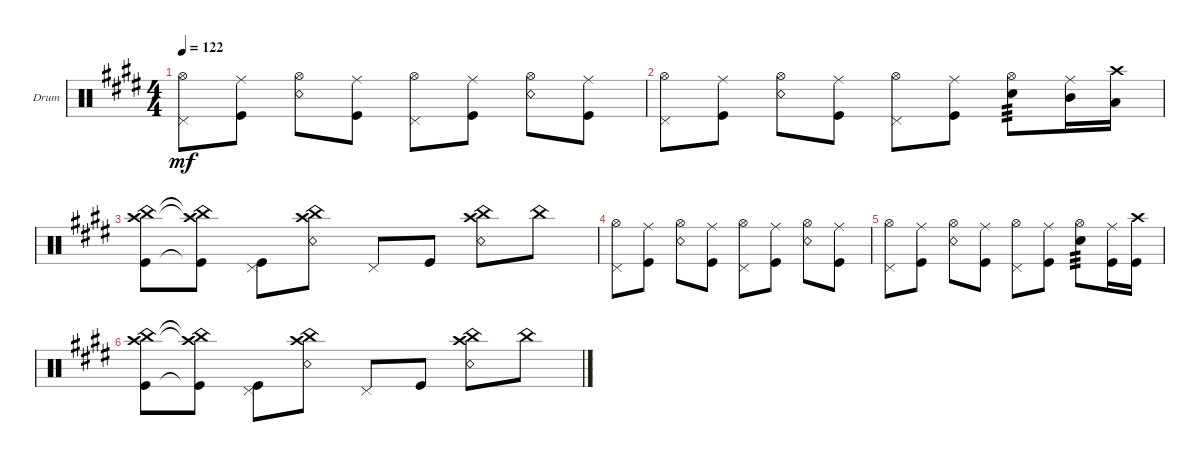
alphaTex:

\defaultSystemsLayout 4
\bracketExtendMode groupsimilarinstruments
\firstSystemTrackNameOrientation horizontal
\otherSystemsTrackNameOrientation horizontal
\track ("Bateria" "Drum") {multiBarRest instrument percussion}
\staff {score}
\articulation defaults
\ts (4 4)
\tempo 122
\clef neutral
\ks e
("Pedal Hi-Hat (hit)" "Hi-Hat (open)").8{dy mf} ("Kick (hit)" "Ride (middle)").8 ("Snare (rim shot)" "Hi-Hat (open)").8 ("Kick (hit)" "Ride (middle)").8 ("Pedal Hi-Hat (hit)" "Hi-Hat (open)").8 ("Kick (hit)" "Ride (middle)").8 ("Snare (rim shot)" "Hi-Hat (open)").8 ("Kick (hit)" "Ride (middle)").8 |
("Pedal Hi-Hat (hit)" "Hi-Hat (open)").8 ("Kick (hit)" "Ride (middle)").8 ("Snare (rim shot)" "Hi-Hat (open)").8 ("Kick (hit)" "Ride (middle)").8 ("Pedal Hi-Hat (hit)" "Hi-Hat (open)").8 ("Kick (hit)" "Ride (middle)").8 ("Snare (hit) 2" "Hi-Hat (open)").8{tp 3} ("Ride (middle)" "Mid Tom (hit)").16 ("Low Tom (hit)" "Crash high (hit)").16 |
("Kick (hit)" "Crash high (hit)" "China (hit)").8 ("Kick (hit)"{t} "Crash high (hit)"{t} "China (hit)"{t}).8 ("Kick (hit)" "Pedal Hi-Hat (hit)").8 ("Snare (rim shot)" "China (hit)" "Crash high (hit)").8 "Pedal Hi-Hat (hit)".8 "Kick (hit)".8 ("Snare (rim shot)" "Crash high (hit)" "China (hit)").8 "China (hit)".8 |
("Pedal Hi-Hat (hit)" "Hi-Hat (open)").8 ("Kick (hit)" "Ride (middle)").8 ("Snare (rim shot)" "Hi-Hat (open)").8 ("Kick (hit)" "Ride (middle)").8 ("Pedal Hi-Hat (hit)" "Hi-Hat (open)").8 ("Kick (hit)" "Ride (middle)").8 ("Snare (rim shot)" "Hi-Hat (open)").8 ("Kick (hit)" "Ride (middle)").8 |
("Pedal Hi-Hat (hit)" "Hi-Hat (open)").8 ("Kick (hit)" "Ride (middle)").8 ("Snare (rim shot)" "Hi-Hat (open)").8 ("Kick (hit)" "Ride (middle)").8 ("Pedal Hi-Hat (hit)" "Hi-Hat (open)").8 ("Kick (hit)" "Ride (middle)").8 ("Snare (hit) 2" "Hi-Hat (open)").8{tp 3} ("Ride (middle)" "Kick (hit)").16 ("Crash high (hit)" "Kick (hit)").16 |
("Kick (hit)" "Crash high (hit)" "China (hit)").8 ("Kick (hit)"{t} "Crash high (hit)"{t} "China (hit)"{t}).8 ("Kick (hit)" "Pedal Hi-Hat (hit)").8 ("Snare (rim shot)" "China (hit)" "Crash high (hit)").8 "Pedal Hi-Hat (hit)".8 "Kick (hit)".8 ("Snare (rim shot)" "Crash high (hit)" "China (hit)").8 "China (hit)".8
